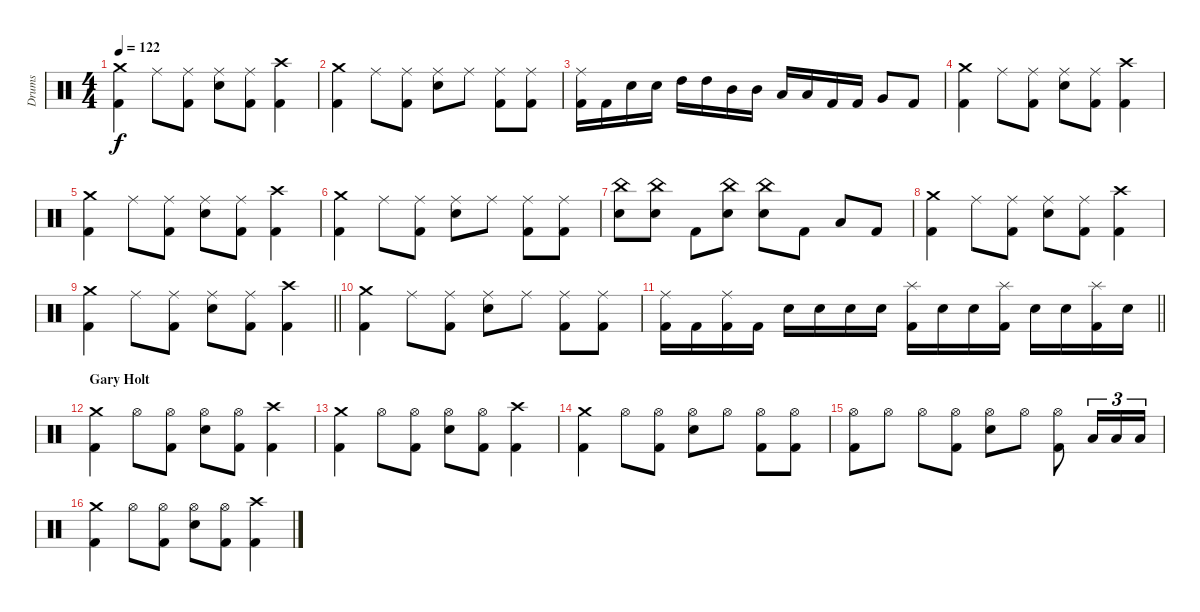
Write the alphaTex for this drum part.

\track ("Drums" "Drums") {instrument percussion}
\staff {score}
\articulation defaults
\ts (4 4)
\tempo 122
\clef neutral
\ks c
("Crash medium (hit)" "Kick (hit) 2").4{dy f} "Ride (middle)".8 ("Ride (middle)" "Kick (hit) 2").8 ("Ride (middle)" "Electric Snare (hit)").8 ("Ride (middle)" "Kick (hit) 2").8 ("Crash high (hit)" "Kick (hit) 2").4 |
("Crash medium (hit)" "Kick (hit) 2").4 "Ride (middle)".8 ("Ride (middle)" "Kick (hit) 2").8 ("Ride (middle)" "Electric Snare (hit)").8 "Ride (middle)".8 ("Ride (middle)" "Kick (hit) 2").8 ("Ride (middle)" "Kick (hit) 2").8 |
("Ride (middle)" "Kick (hit) 2").16 "Kick (hit) 2".16 "Electric Snare (hit)".16 "Electric Snare (hit)".16 "High Tom (hit)".16 "High Tom (hit)".16 "Mid Tom (hit)".16 "Mid Tom (hit)".16 "Low Tom (hit)".16 "Low Tom (hit)".16 "Kick (hit) 2".16 "Kick (hit) 2".16 "Very Low Tom (hit)".8 "Kick (hit) 2".8 |
("Crash medium (hit)" "Kick (hit) 2").4 "Ride (middle)".8 ("Ride (middle)" "Kick (hit) 2").8 ("Ride (middle)" "Electric Snare (hit)").8 ("Ride (middle)" "Kick (hit) 2").8 ("Crash high (hit)" "Kick (hit) 2").4 |
("Crash medium (hit)" "Kick (hit) 2").4 "Ride (middle)".8 ("Ride (middle)" "Kick (hit) 2").8 ("Ride (middle)" "Electric Snare (hit)").8 ("Ride (middle)" "Kick (hit) 2").8 ("Crash high (hit)" "Kick (hit) 2").4 |
("Crash medium (hit)" "Kick (hit) 2").4 "Ride (middle)".8 ("Ride (middle)" "Kick (hit) 2").8 ("Ride (middle)" "Electric Snare (hit)").8 "Ride (middle)".8 ("Ride (middle)" "Kick (hit) 2").8 ("Ride (middle)" "Kick (hit) 2").8 |
("China (hit)" "Electric Snare (hit)").8 ("China (hit)" "Electric Snare (hit)").8 "Kick (hit) 2".8 ("China (hit)" "Electric Snare (hit)").8 ("China (hit)" "Electric Snare (hit)").8 "Kick (hit) 2".8 "Low Tom (hit)".8 "Kick (hit) 2".8 |
("Crash medium (hit)" "Kick (hit) 2").4 "Ride (middle)".8 ("Ride (middle)" "Kick (hit) 2").8 ("Ride (middle)" "Electric Snare (hit)").8 ("Ride (middle)" "Kick (hit) 2").8 ("Crash high (hit)" "Kick (hit) 2").4 |
\barLineRight lightlight
("Crash medium (hit)" "Kick (hit) 2").4 "Ride (middle)".8 ("Ride (middle)" "Kick (hit) 2").8 ("Ride (middle)" "Electric Snare (hit)").8 ("Ride (middle)" "Kick (hit) 2").8 ("Crash high (hit)" "Kick (hit) 2").4 |
("Crash medium (hit)" "Kick (hit) 2").4 "Ride (middle)".8 ("Ride (middle)" "Kick (hit) 2").8 ("Ride (middle)" "Electric Snare (hit)").8 "Ride (middle)".8 ("Ride (middle)" "Kick (hit) 2").8 ("Ride (middle)" "Kick (hit) 2").8 |
\barLineRight lightlight
("Ride (middle)" "Kick (hit) 2").16 "Kick (hit) 2".16 ("Ride (middle)" "Kick (hit) 2").16 "Kick (hit) 2".16 "Electric Snare (hit)".16 "Electric Snare (hit)".16 "Electric Snare (hit)".16 "Electric Snare (hit)".16 ("Splash (hit)" "Kick (hit) 2").16 "Electric Snare (hit)".16 "Electric Snare (hit)".16 ("Splash (hit)" "Kick (hit) 2").16 "Electric Snare (hit)".16 "Electric Snare (hit)".16 ("Splash (hit)" "Kick (hit) 2").16 "Electric Snare (hit)".16 |
\section ("" "Gary Holt")
("Crash medium (hit)" "Kick (hit) 2").4 "Hi-Hat (open)".8 ("Hi-Hat (open)" "Kick (hit) 2").8 ("Hi-Hat (open)" "Electric Snare (hit)").8 ("Hi-Hat (open)" "Kick (hit) 2").8 ("Crash high (hit)" "Kick (hit) 2").4 |
("Crash medium (hit)" "Kick (hit) 2").4 "Hi-Hat (open)".8 ("Hi-Hat (open)" "Kick (hit) 2").8 ("Hi-Hat (open)" "Electric Snare (hit)").8 ("Hi-Hat (open)" "Kick (hit) 2").8 ("Crash high (hit)" "Kick (hit) 2").4 |
("Crash medium (hit)" "Kick (hit) 2").4 "Hi-Hat (open)".8 ("Hi-Hat (open)" "Kick (hit) 2").8 ("Hi-Hat (open)" "Electric Snare (hit)").8 "Hi-Hat (open)".8 ("Hi-Hat (open)" "Kick (hit) 2").8 ("Hi-Hat (open)" "Kick (hit) 2").8 |
("Hi-Hat (open)" "Kick (hit) 2").8 "Hi-Hat (open)".8 "Hi-Hat (open)".8 ("Hi-Hat (open)" "Kick (hit) 2").8 ("Hi-Hat (open)" "Electric Snare (hit)").8 "Hi-Hat (open)".8 ("Hi-Hat (open)" "Kick (hit) 2").8 "Low Tom (hit)".16{tu (3 2)} "Low Tom (hit)".16{tu (3 2)} "Low Tom (hit)".16{tu (3 2)} |
("Crash medium (hit)" "Kick (hit) 2").4 "Hi-Hat (open)".8 ("Hi-Hat (open)" "Kick (hit) 2").8 ("Hi-Hat (open)" "Electric Snare (hit)").8 ("Hi-Hat (open)" "Kick (hit) 2").8 ("Crash high (hit)" "Kick (hit) 2").4
